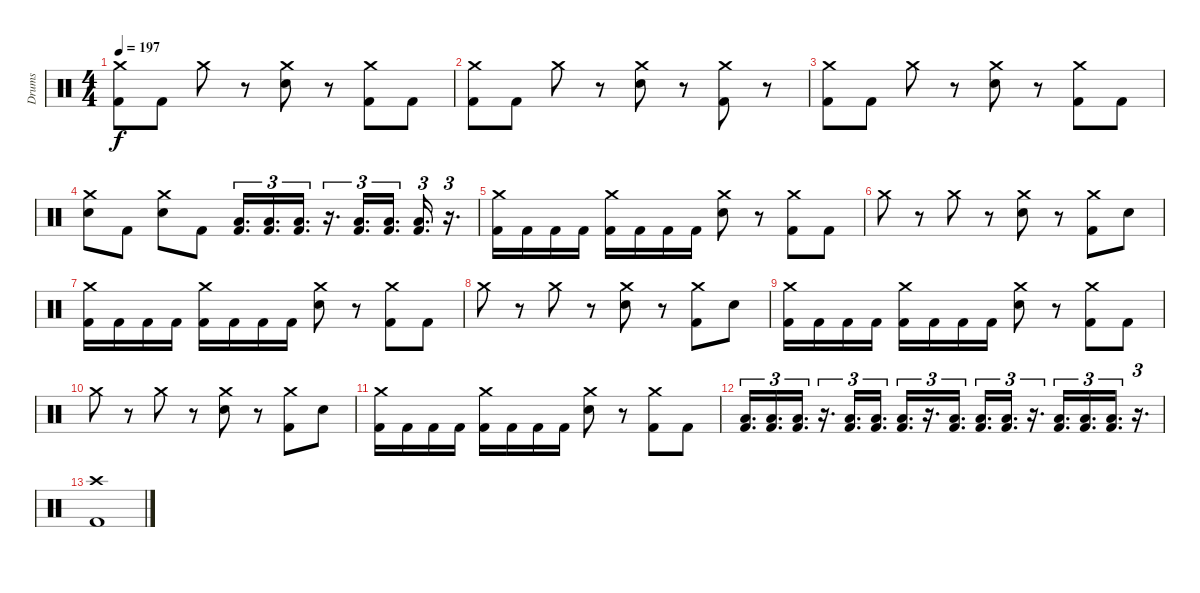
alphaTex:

\track ("Drums" "Drums") {instrument percussion}
\staff {score}
\articulation defaults
\ts (4 4)
\tempo 197
\clef neutral
\ks c
("Crash medium (hit)" "Kick (hit) 2").8{dy f} "Kick (hit) 2".8 "Crash medium (hit)".8 r.8 ("Crash medium (hit)" "Electric Snare (hit)").8 r.8 ("Crash medium (hit)" "Kick (hit) 2").8 "Kick (hit) 2".8 |
("Crash medium (hit)" "Kick (hit) 2").8 "Kick (hit) 2".8 "Crash medium (hit)".8 r.8 ("Crash medium (hit)" "Electric Snare (hit)").8 r.8 ("Crash medium (hit)" "Kick (hit) 2").8 r.8 |
("Crash medium (hit)" "Kick (hit) 2").8 "Kick (hit) 2".8 "Crash medium (hit)".8 r.8 ("Crash medium (hit)" "Electric Snare (hit)").8 r.8 ("Crash medium (hit)" "Kick (hit) 2").8 "Kick (hit) 2".8 |
("Crash medium (hit)" "Electric Snare (hit)").8 "Kick (hit) 2".8 ("Crash medium (hit)" "Electric Snare (hit)").8 "Kick (hit) 2".8 ("Low Floor Tom (hit)" "Kick (hit) 2").16{d tu (3 2)} ("Low Floor Tom (hit)" "Kick (hit) 2").16{d tu (3 2)} ("Low Floor Tom (hit)" "Kick (hit) 2").16{d tu (3 2)} r.16{d tu (3 2)} ("Low Floor Tom (hit)" "Kick (hit) 2").16{d tu (3 2)} ("Low Floor Tom (hit)" "Kick (hit) 2").16{d tu (3 2)} ("Low Floor Tom (hit)" "Kick (hit) 2").16{d tu (3 2)} r.16{d tu (3 2)} |
("Crash medium (hit)" "Kick (hit) 2").16 "Kick (hit) 2".16 "Kick (hit) 2".16 "Kick (hit) 2".16 ("Crash medium (hit)" "Kick (hit) 2").16 "Kick (hit) 2".16 "Kick (hit) 2".16 "Kick (hit) 2".16 ("Crash medium (hit)" "Electric Snare (hit)").8 r.8 ("Crash medium (hit)" "Kick (hit) 2").8 "Kick (hit) 2".8 |
"Crash medium (hit)".8 r.8 "Crash medium (hit)".8 r.8 ("Crash medium (hit)" "Electric Snare (hit)").8 r.8 ("Crash medium (hit)" "Kick (hit) 2").8 "Electric Snare (hit)".8 |
("Crash medium (hit)" "Kick (hit) 2").16 "Kick (hit) 2".16 "Kick (hit) 2".16 "Kick (hit) 2".16 ("Crash medium (hit)" "Kick (hit) 2").16 "Kick (hit) 2".16 "Kick (hit) 2".16 "Kick (hit) 2".16 ("Crash medium (hit)" "Electric Snare (hit)").8 r.8 ("Crash medium (hit)" "Kick (hit) 2").8 "Kick (hit) 2".8 |
"Crash medium (hit)".8 r.8 "Crash medium (hit)".8 r.8 ("Crash medium (hit)" "Electric Snare (hit)").8 r.8 ("Crash medium (hit)" "Kick (hit) 2").8 "Electric Snare (hit)".8 |
("Crash medium (hit)" "Kick (hit) 2").16 "Kick (hit) 2".16 "Kick (hit) 2".16 "Kick (hit) 2".16 ("Crash medium (hit)" "Kick (hit) 2").16 "Kick (hit) 2".16 "Kick (hit) 2".16 "Kick (hit) 2".16 ("Crash medium (hit)" "Electric Snare (hit)").8 r.8 ("Crash medium (hit)" "Kick (hit) 2").8 "Kick (hit) 2".8 |
"Crash medium (hit)".8 r.8 "Crash medium (hit)".8 r.8 ("Crash medium (hit)" "Electric Snare (hit)").8 r.8 ("Crash medium (hit)" "Kick (hit) 2").8 "Electric Snare (hit)".8 |
("Crash medium (hit)" "Kick (hit) 2").16 "Kick (hit) 2".16 "Kick (hit) 2".16 "Kick (hit) 2".16 ("Crash medium (hit)" "Kick (hit) 2").16 "Kick (hit) 2".16 "Kick (hit) 2".16 "Kick (hit) 2".16 ("Crash medium (hit)" "Electric Snare (hit)").8 r.8 ("Crash medium (hit)" "Kick (hit) 2").8 "Kick (hit) 2".8 |
("Low Floor Tom (hit)" "Kick (hit) 2").16{d tu (3 2)} ("Low Floor Tom (hit)" "Kick (hit) 2").16{d tu (3 2)} ("Low Floor Tom (hit)" "Kick (hit) 2").16{d tu (3 2)} r.16{d tu (3 2)} ("Low Floor Tom (hit)" "Kick (hit) 2").16{d tu (3 2)} ("Low Floor Tom (hit)" "Kick (hit) 2").16{d tu (3 2)} ("Low Floor Tom (hit)" "Kick (hit) 2").16{d tu (3 2)} r.16{d tu (3 2)} ("Low Floor Tom (hit)" "Kick (hit) 2").16{d tu (3 2)} ("Low Floor Tom (hit)" "Kick (hit) 2").16{d tu (3 2)} ("Low Floor Tom (hit)" "Kick (hit) 2").16{d tu (3 2)} r.16{d tu (3 2)} ("Low Floor Tom (hit)" "Kick (hit) 2").16{d tu (3 2)} ("Low Floor Tom (hit)" "Kick (hit) 2").16{d tu (3 2)} ("Low Floor Tom (hit)" "Kick (hit) 2").16{d tu (3 2)} r.16{d tu (3 2)} |
("Crash high (hit)" "Kick (hit) 2").1
